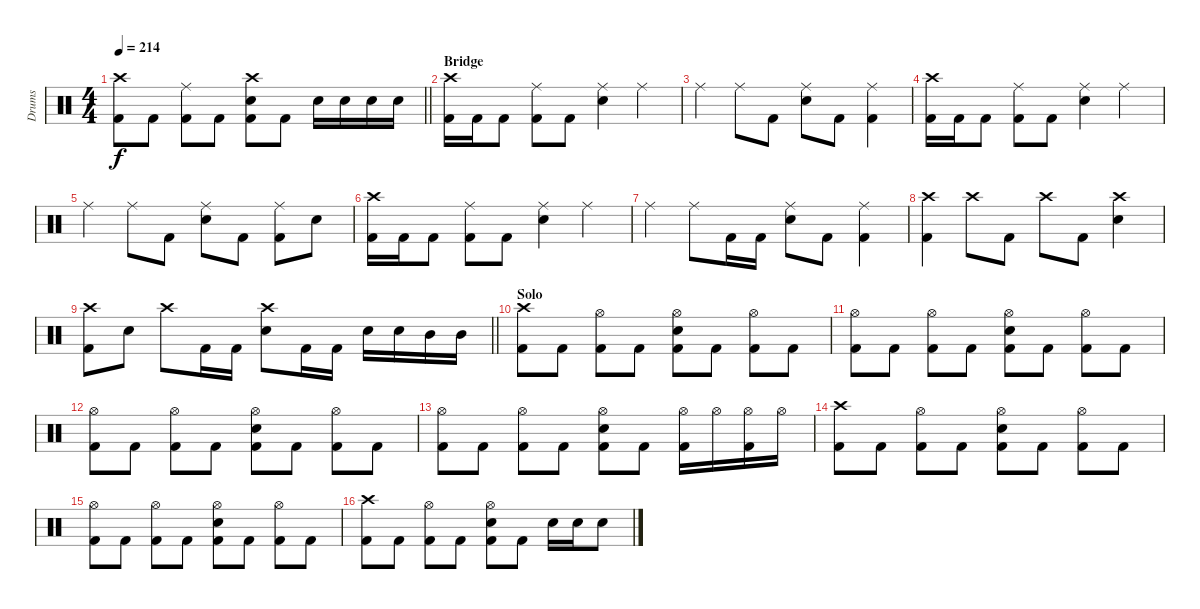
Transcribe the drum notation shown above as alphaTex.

\track ("Drums" "Drums") {instrument percussion}
\staff {score}
\articulation defaults
\ts (4 4)
\tempo 214
\clef neutral
\barLineRight lightlight
\ks c
("Crash high (hit)" "Kick (hit) 2").8{dy f} "Kick (hit) 2".8 ("Ride (middle)" "Kick (hit) 2").8 "Kick (hit) 2".8 ("Crash high (hit)" "Snare (hit) 2" "Kick (hit) 2").8 "Kick (hit) 2".8 "Snare (hit) 2".16 "Snare (hit) 2".16 "Snare (hit) 2".16 "Snare (hit) 2".16 |
\section ("" "Bridge")
("Crash high (hit)" "Kick (hit) 2").16 "Kick (hit) 2".16 "Kick (hit) 2".8 ("Ride (middle)" "Kick (hit) 2").8 "Kick (hit) 2".8 ("Ride (middle)" "Snare (hit) 2").4 "Ride (middle)".4 |
"Ride (middle)".4 "Ride (middle)".8 "Kick (hit) 2".8 ("Ride (middle)" "Snare (hit) 2").8 "Kick (hit) 2".8 ("Ride (middle)" "Kick (hit) 2").4 |
("Crash high (hit)" "Kick (hit) 2").16 "Kick (hit) 2".16 "Kick (hit) 2".8 ("Ride (middle)" "Kick (hit) 2").8 "Kick (hit) 2".8 ("Ride (middle)" "Snare (hit) 2").4 "Ride (middle)".4 |
"Ride (middle)".4 "Ride (middle)".8 "Kick (hit) 2".8 ("Ride (middle)" "Snare (hit) 2").8 "Kick (hit) 2".8 ("Ride (middle)" "Kick (hit) 2").8 "Snare (hit) 2".8 |
("Crash high (hit)" "Kick (hit) 2").16 "Kick (hit) 2".16 "Kick (hit) 2".8 ("Ride (middle)" "Kick (hit) 2").8 "Kick (hit) 2".8 ("Ride (middle)" "Snare (hit) 2").4 "Ride (middle)".4 |
"Ride (middle)".4 "Ride (middle)".8 "Kick (hit) 2".16 "Kick (hit) 2".16 ("Ride (middle)" "Snare (hit) 2").8 "Kick (hit) 2".8 ("Ride (middle)" "Kick (hit) 2").4 |
("Crash high (hit)" "Kick (hit) 2").4 "Crash high (hit)".8 "Kick (hit) 2".8 "Crash high (hit)".8 "Kick (hit) 2".8 ("Crash high (hit)" "Snare (hit) 2").4 |
\barLineRight lightlight
("Crash high (hit)" "Kick (hit) 2").8 "Snare (hit) 2".8 "Crash high (hit)".8 "Kick (hit) 2".16 "Kick (hit) 2".16 ("Crash high (hit)" "Snare (hit) 2").8 "Kick (hit) 2".16 "Kick (hit) 2".16 "Snare (hit) 2".16 "Snare (hit) 2".16 "Mid Tom (hit)".16 "Mid Tom (hit)".16 |
\section ("" "Solo")
("Crash high (hit)" "Kick (hit) 2").8 "Kick (hit) 2".8 ("Hi-Hat (open)" "Kick (hit) 2").8 "Kick (hit) 2".8 ("Hi-Hat (open)" "Snare (hit) 2" "Kick (hit) 2").8 "Kick (hit) 2".8 ("Hi-Hat (open)" "Kick (hit) 2").8 "Kick (hit) 2".8 |
("Hi-Hat (open)" "Kick (hit) 2").8 "Kick (hit) 2".8 ("Hi-Hat (open)" "Kick (hit) 2").8 "Kick (hit) 2".8 ("Hi-Hat (open)" "Snare (hit) 2" "Kick (hit) 2").8 "Kick (hit) 2".8 ("Hi-Hat (open)" "Kick (hit) 2").8 "Kick (hit) 2".8 |
("Hi-Hat (open)" "Kick (hit) 2").8 "Kick (hit) 2".8 ("Hi-Hat (open)" "Kick (hit) 2").8 "Kick (hit) 2".8 ("Hi-Hat (open)" "Snare (hit) 2" "Kick (hit) 2").8 "Kick (hit) 2".8 ("Hi-Hat (open)" "Kick (hit) 2").8 "Kick (hit) 2".8 |
("Hi-Hat (open)" "Kick (hit) 2").8 "Kick (hit) 2".8 ("Hi-Hat (open)" "Kick (hit) 2").8 "Kick (hit) 2".8 ("Hi-Hat (open)" "Snare (hit) 2" "Kick (hit) 2").8 "Kick (hit) 2".8 ("Hi-Hat (open)" "Kick (hit) 2").16 "Hi-Hat (open)".16 ("Hi-Hat (open)" "Kick (hit) 2").16 "Hi-Hat (open)".16 |
("Crash high (hit)" "Kick (hit) 2").8 "Kick (hit) 2".8 ("Hi-Hat (open)" "Kick (hit) 2").8 "Kick (hit) 2".8 ("Hi-Hat (open)" "Snare (hit) 2" "Kick (hit) 2").8 "Kick (hit) 2".8 ("Hi-Hat (open)" "Kick (hit) 2").8 "Kick (hit) 2".8 |
("Hi-Hat (open)" "Kick (hit) 2").8 "Kick (hit) 2".8 ("Hi-Hat (open)" "Kick (hit) 2").8 "Kick (hit) 2".8 ("Hi-Hat (open)" "Snare (hit) 2" "Kick (hit) 2").8 "Kick (hit) 2".8 ("Hi-Hat (open)" "Kick (hit) 2").8 "Kick (hit) 2".8 |
("Crash high (hit)" "Kick (hit) 2").8 "Kick (hit) 2".8 ("Hi-Hat (open)" "Kick (hit) 2").8 "Kick (hit) 2".8 ("Hi-Hat (open)" "Snare (hit) 2" "Kick (hit) 2").8 "Kick (hit) 2".8 "Snare (hit) 2".16 "Snare (hit) 2".16 "Snare (hit) 2".8
